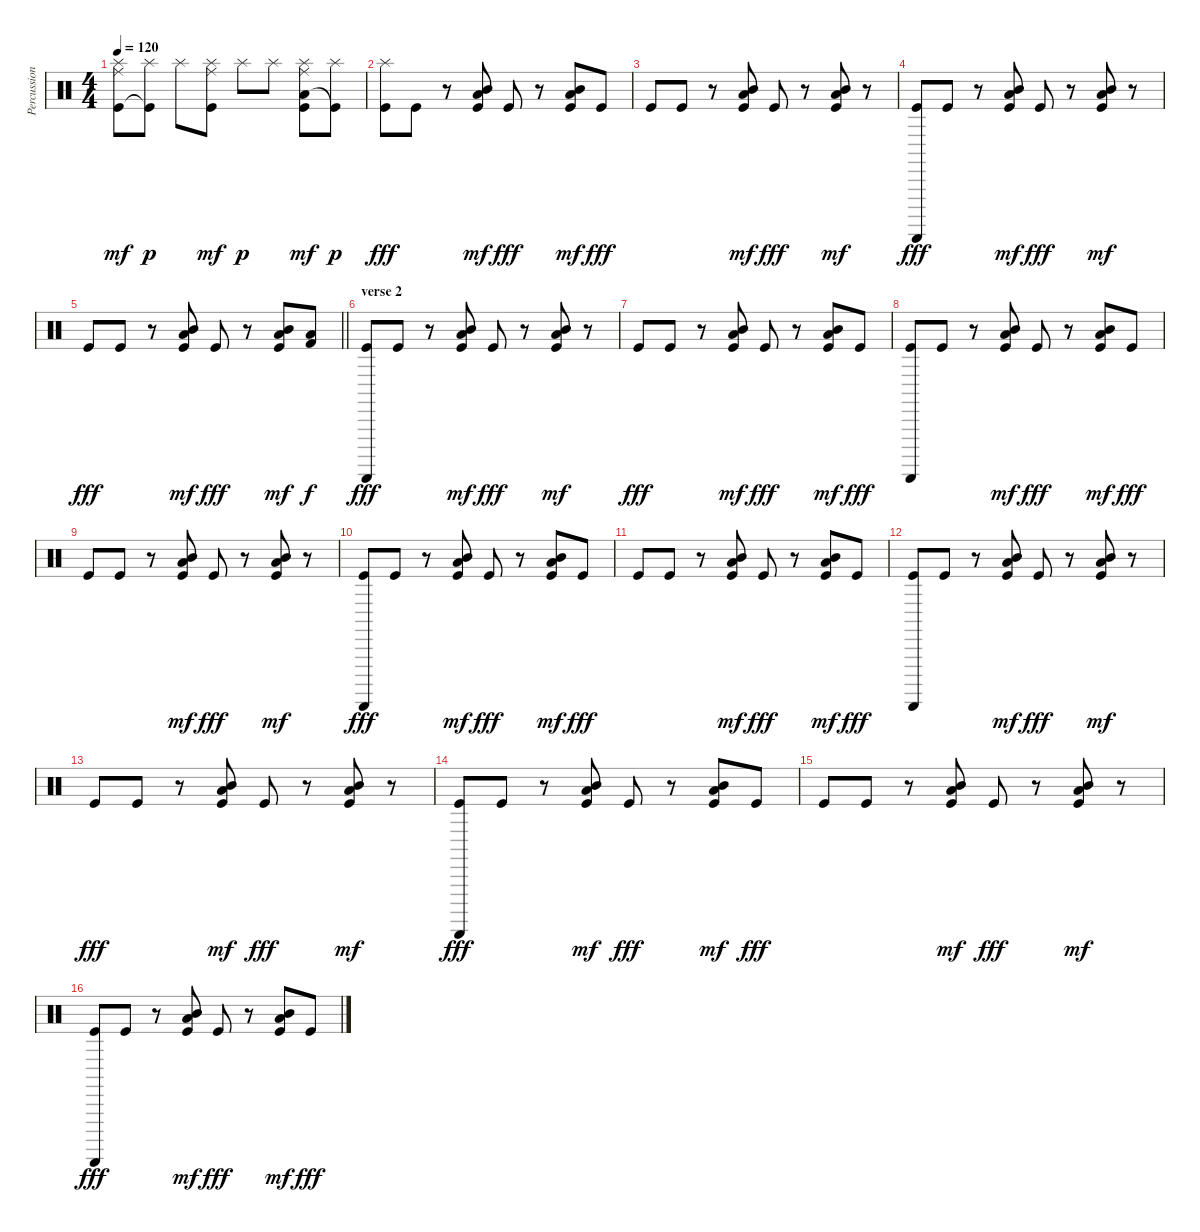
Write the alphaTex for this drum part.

\track ("Percussion" "Percussion") {instrument percussion}
\staff {score}
\articulation defaults
\ts (4 4)
\tempo 120
\clef neutral
\ks c
("Splash (hit)" "Kick (hit)" "Ride (middle)").8{dy mf} ("Splash (hit)" "Kick (hit)"{t}).8{dy p} "Splash (hit)".8 ("Splash (hit)" "Kick (hit)" "Ride (middle)").8{dy mf} "Splash (hit)".8{dy p} "Splash (hit)".8 ("Splash (hit)" "Low Tom (hit)" "Kick (hit)" "Ride (middle)").8{dy mf} ("Splash (hit)" "Kick (hit)"{t}).8{dy p} |
("Splash (hit)" "Kick (hit)").8{dy fff} "Kick (hit)".8 r.8 ("Mid Tom (hit)" "Low Floor Tom (hit)" "Kick (hit)").8{dy mf} "Kick (hit)".8{dy fff} r.8 ("Mid Tom (hit)" "Low Floor Tom (hit)" "Kick (hit)").8{dy mf} "Kick (hit)".8{dy fff} |
"Kick (hit)".8 "Kick (hit)".8 r.8 ("Mid Tom (hit)" "Low Floor Tom (hit)" "Kick (hit)").8{dy mf} "Kick (hit)".8{dy fff} r.8 ("Mid Tom (hit)" "Low Floor Tom (hit)" "Kick (hit)").8{dy mf} r.8 |
("Guiro (scrap-return)" "Kick (hit)").8{dy fff} "Kick (hit)".8 r.8 ("Mid Tom (hit)" "Low Floor Tom (hit)" "Kick (hit)").8{dy mf} "Kick (hit)".8{dy fff} r.8 ("Mid Tom (hit)" "Low Floor Tom (hit)" "Kick (hit)").8{dy mf} r.8 |
\barLineRight lightlight "Kick (hit)".8{dy fff} "Kick (hit)".8
r.8 ("Mid Tom (hit)" "Low Floor Tom (hit)" "Kick (hit)").8{dy mf} "Kick (hit)".8{dy fff} r.8 ("Mid Tom (hit)" "Low Floor Tom (hit)" "Kick (hit)").8{dy mf} ("Low Floor Tom (hit)" "Kick (hit) 2").8{dy f} |
\section ("" "verse 2")
("Guiro (scrap-return)" "Kick (hit)").8{dy fff} "Kick (hit)".8 r.8 ("Mid Tom (hit)" "Low Floor Tom (hit)" "Kick (hit)").8{dy mf} "Kick (hit)".8{dy fff} r.8 ("Mid Tom (hit)" "Low Floor Tom (hit)" "Kick (hit)").8{dy mf} r.8 |
"Kick (hit)".8{dy fff} "Kick (hit)".8 r.8 ("Mid Tom (hit)" "Low Floor Tom (hit)" "Kick (hit)").8{dy mf} "Kick (hit)".8{dy fff} r.8 ("Mid Tom (hit)" "Low Floor Tom (hit)" "Kick (hit)").8{dy mf} "Kick (hit)".8{dy fff} |
("Guiro (scrap-return)" "Kick (hit)").8 "Kick (hit)".8 r.8 ("Mid Tom (hit)" "Low Floor Tom (hit)" "Kick (hit)").8{dy mf} "Kick (hit)".8{dy fff} r.8 ("Mid Tom (hit)" "Low Floor Tom (hit)" "Kick (hit)").8{dy mf} "Kick (hit)".8{dy fff} |
"Kick (hit)".8 "Kick (hit)".8 r.8 ("Mid Tom (hit)" "Low Floor Tom (hit)" "Kick (hit)").8{dy mf} "Kick (hit)".8{dy fff} r.8 ("Mid Tom (hit)" "Low Floor Tom (hit)" "Kick (hit)").8{dy mf} r.8 |
("Guiro (scrap-return)" "Kick (hit)").8{dy fff} "Kick (hit)".8 r.8 ("Mid Tom (hit)" "Low Floor Tom (hit)" "Kick (hit)").8{dy mf} "Kick (hit)".8{dy fff} r.8 ("Mid Tom (hit)" "Low Floor Tom (hit)" "Kick (hit)").8{dy mf} "Kick (hit)".8{dy fff} |
"Kick (hit)".8 "Kick (hit)".8 r.8 ("Mid Tom (hit)" "Low Floor Tom (hit)" "Kick (hit)").8{dy mf} "Kick (hit)".8{dy fff} r.8 ("Mid Tom (hit)" "Low Floor Tom (hit)" "Kick (hit)").8{dy mf} "Kick (hit)".8{dy fff} |
("Guiro (scrap-return)" "Kick (hit)").8 "Kick (hit)".8 r.8 ("Mid Tom (hit)" "Low Floor Tom (hit)" "Kick (hit)").8{dy mf} "Kick (hit)".8{dy fff} r.8 ("Mid Tom (hit)" "Low Floor Tom (hit)" "Kick (hit)").8{dy mf} r.8 |
"Kick (hit)".8{dy fff} "Kick (hit)".8 r.8 ("Mid Tom (hit)" "Low Floor Tom (hit)" "Kick (hit)").8{dy mf} "Kick (hit)".8{dy fff} r.8 ("Mid Tom (hit)" "Low Floor Tom (hit)" "Kick (hit)").8{dy mf} r.8 |
("Guiro (scrap-return)" "Kick (hit)").8{dy fff} "Kick (hit)".8 r.8 ("Mid Tom (hit)" "Low Floor Tom (hit)" "Kick (hit)").8{dy mf} "Kick (hit)".8{dy fff} r.8 ("Mid Tom (hit)" "Low Floor Tom (hit)" "Kick (hit)").8{dy mf} "Kick (hit)".8{dy fff} |
"Kick (hit)".8 "Kick (hit)".8 r.8 ("Mid Tom (hit)" "Low Floor Tom (hit)" "Kick (hit)").8{dy mf} "Kick (hit)".8{dy fff} r.8 ("Mid Tom (hit)" "Low Floor Tom (hit)" "Kick (hit)").8{dy mf} r.8 |
("Guiro (scrap-return)" "Kick (hit)").8{dy fff} "Kick (hit)".8 r.8 ("Mid Tom (hit)" "Low Floor Tom (hit)" "Kick (hit)").8{dy mf} "Kick (hit)".8{dy fff} r.8 ("Mid Tom (hit)" "Low Floor Tom (hit)" "Kick (hit)").8{dy mf} "Kick (hit)".8{dy fff}
